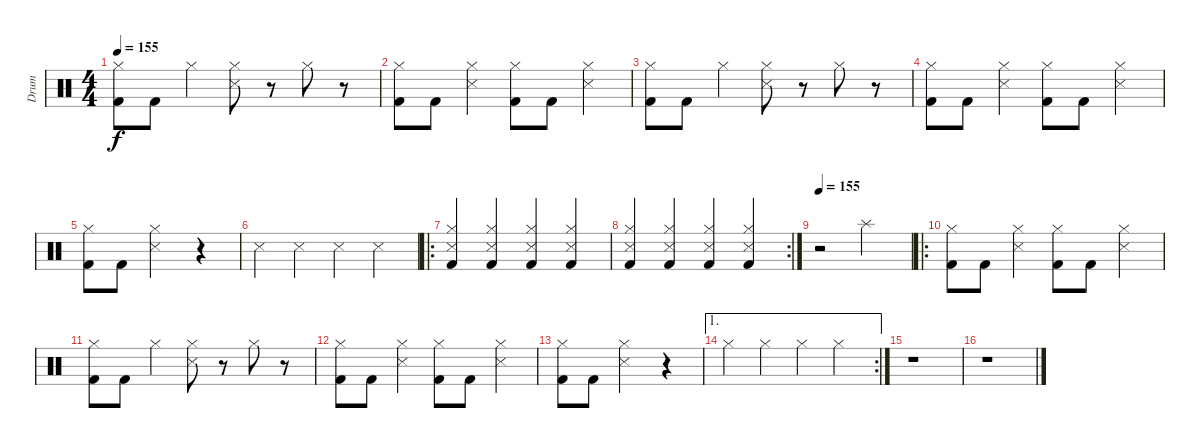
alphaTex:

\track ("Drum" "Drum") {instrument percussion}
\staff {score}
\articulation defaults
\ts (4 4)
\tempo 155
\clef neutral
\ks c
("Kick (hit) 2" "Hi-Hat (closed)").8{dy f} "Kick (hit) 2".8 "Hi-Hat (closed)".4 ("Snare (side stick) 3" "Hi-Hat (closed)").8 r.8 "Hi-Hat (closed)".8 r.8 |
("Kick (hit) 2" "Hi-Hat (closed)").8 "Kick (hit) 2".8 ("Snare (side stick) 3" "Hi-Hat (closed)").4 ("Kick (hit) 2" "Hi-Hat (closed)").8 "Kick (hit) 2".8 ("Snare (side stick) 3" "Hi-Hat (closed)").4 |
("Kick (hit) 2" "Hi-Hat (closed)").8 "Kick (hit) 2".8 "Hi-Hat (closed)".4 ("Snare (side stick) 3" "Hi-Hat (closed)").8 r.8 "Hi-Hat (closed)".8 r.8 |
("Kick (hit) 2" "Hi-Hat (closed)").8 "Kick (hit) 2".8 ("Snare (side stick) 3" "Hi-Hat (closed)").4 ("Kick (hit) 2" "Hi-Hat (closed)").8 "Kick (hit) 2".8 ("Snare (side stick) 3" "Hi-Hat (closed)").4 |
("Kick (hit) 2" "Hi-Hat (closed)").8 "Kick (hit) 2".8 ("Snare (side stick) 3" "Hi-Hat (closed)").2 r.4 |
"Snare (side stick) 3".4 "Snare (side stick) 3".4 "Snare (side stick) 3".4 "Snare (side stick) 3".4 |
\ro
("Kick (hit) 2" "Hi-Hat (closed)" "Snare (side stick) 3").4 ("Kick (hit) 2" "Hi-Hat (closed)" "Snare (side stick) 3").4 ("Kick (hit) 2" "Hi-Hat (closed)" "Snare (side stick) 3").4 ("Kick (hit) 2" "Hi-Hat (closed)" "Snare (side stick) 3").4 |
\rc 2
("Kick (hit) 2" "Hi-Hat (closed)" "Snare (side stick) 3").4 ("Kick (hit) 2" "Hi-Hat (closed)" "Snare (side stick) 3").4 ("Kick (hit) 2" "Hi-Hat (closed)" "Snare (side stick) 3").4 ("Kick (hit) 2" "Hi-Hat (closed)" "Snare (side stick) 3").4 |
\tempo 155
r.2{volume 16} "Splash (hit)".2 |
\ro
("Kick (hit) 2" "Hi-Hat (closed)").8{volume 11} "Kick (hit) 2".8 ("Snare (side stick) 3" "Hi-Hat (closed)").4 ("Kick (hit) 2" "Hi-Hat (closed)").8 "Kick (hit) 2".8 ("Snare (side stick) 3" "Hi-Hat (closed)").4 |
("Kick (hit) 2" "Hi-Hat (closed)").8 "Kick (hit) 2".8 "Hi-Hat (closed)".4 ("Snare (side stick) 3" "Hi-Hat (closed)").8 r.8 "Hi-Hat (closed)".8 r.8 |
("Kick (hit) 2" "Hi-Hat (closed)").8 "Kick (hit) 2".8 ("Snare (side stick) 3" "Hi-Hat (closed)").4 ("Kick (hit) 2" "Hi-Hat (closed)").8 "Kick (hit) 2".8 ("Snare (side stick) 3" "Hi-Hat (closed)").4 |
("Kick (hit) 2" "Hi-Hat (closed)").8 "Kick (hit) 2".8 ("Snare (side stick) 3" "Hi-Hat (closed)").2 r.4 |
\ae 1
\rc 2 "Hi-Hat (closed)".4 "Hi-Hat (closed)".4 "Hi-Hat (closed)".4 "Hi-Hat (closed)".4
|
r.1 |
r.1
